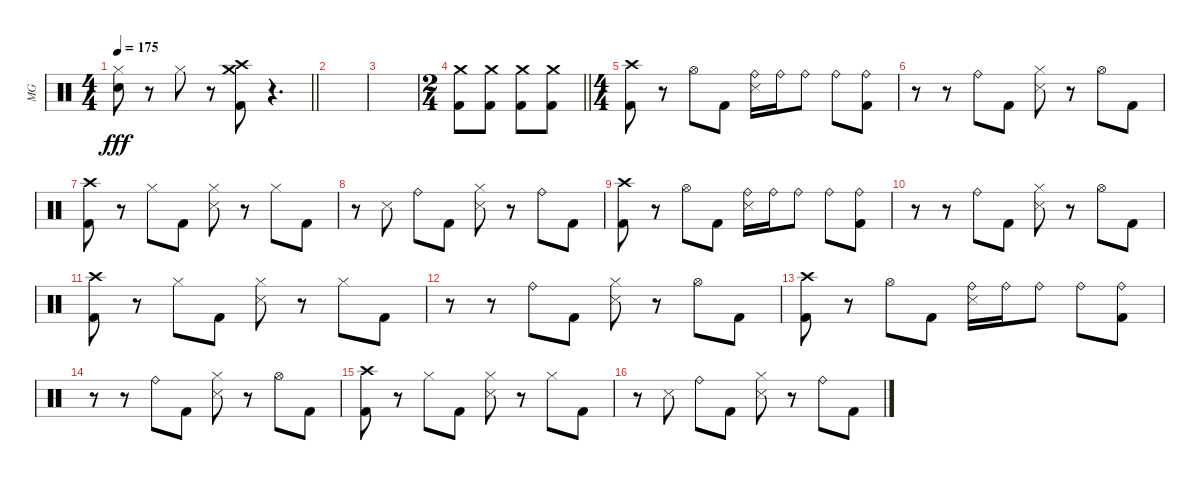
\track ("MG" "MG") {instrument percussion}
\staff {score}
\articulation defaults
\ts (4 4)
\tempo 175
\clef neutral
\barLineRight lightlight
\ks c
("Hi-Hat (closed)" "Electric Snare (hit)").8{dy fff} r.8 "Hi-Hat (closed)".8 r.8 ("Crash medium (hit)" "Crash high (hit)" "Kick (hit) 2").8 r.4{d} |
\section ("" "")
|
|
\ts (2 4)
\barLineRight lightlight
("Crash medium (hit)" "Kick (hit) 2").8 ("Crash medium (hit)" "Kick (hit) 2").8 ("Crash medium (hit)" "Kick (hit) 2").8 ("Crash medium (hit)" "Kick (hit) 2").8 |
\ts (4 4)
\section ("" "")
("Crash high (hit)" "Kick (hit) 2").8 r.8 "Hi-Hat (open)".8 "Kick (hit) 2".8 ("Ride (bell)" "Snare (side stick) 3").16 "Ride (bell)".16 "Ride (bell)".8 "Ride (bell)".8 ("Ride (bell)" "Kick (hit) 2").8 |
r.8 r.8 "Ride (bell)".8 "Kick (hit) 2".8 ("Hi-Hat (closed)" "Snare (side stick) 3").8 r.8 "Hi-Hat (open)".8 "Kick (hit) 2".8 |
("Crash high (hit)" "Kick (hit) 2").8 r.8 "Hi-Hat (closed)".8 "Kick (hit) 2".8 ("Hi-Hat (closed)" "Snare (side stick) 3").8 r.8 "Hi-Hat (closed)".8 "Kick (hit) 2".8 |
r.8 "Snare (side stick) 3".8 "Ride (bell)".8 "Kick (hit) 2".8 ("Hi-Hat (closed)" "Snare (side stick) 3").8 r.8 "Ride (bell)".8 "Kick (hit) 2".8 |
("Crash high (hit)" "Kick (hit) 2").8 r.8 "Hi-Hat (open)".8 "Kick (hit) 2".8 ("Ride (bell)" "Snare (side stick) 3").16 "Ride (bell)".16 "Ride (bell)".8 "Ride (bell)".8 ("Ride (bell)" "Kick (hit) 2").8 |
r.8 r.8 "Ride (bell)".8 "Kick (hit) 2".8 ("Hi-Hat (closed)" "Snare (side stick) 3").8 r.8 "Hi-Hat (open)".8 "Kick (hit) 2".8 |
("Crash high (hit)" "Kick (hit) 2").8 r.8 "Hi-Hat (closed)".8 "Kick (hit) 2".8 ("Hi-Hat (closed)" "Snare (side stick) 3").8 r.8 "Hi-Hat (closed)".8 "Kick (hit) 2".8 |
r.8 r.8 "Ride (bell)".8 "Kick (hit) 2".8 ("Hi-Hat (closed)" "Snare (side stick) 3").8 r.8 "Hi-Hat (open)".8 "Kick (hit) 2".8 |
("Crash high (hit)" "Kick (hit) 2").8 r.8 "Hi-Hat (open)".8 "Kick (hit) 2".8 ("Ride (bell)" "Snare (side stick) 3").16 "Ride (bell)".16 "Ride (bell)".8 "Ride (bell)".8 ("Ride (bell)" "Kick (hit) 2").8 |
r.8 r.8 "Ride (bell)".8 "Kick (hit) 2".8 ("Hi-Hat (closed)" "Snare (side stick) 3").8 r.8 "Hi-Hat (open)".8 "Kick (hit) 2".8 |
("Crash high (hit)" "Kick (hit) 2").8 r.8 "Hi-Hat (closed)".8 "Kick (hit) 2".8 ("Hi-Hat (closed)" "Snare (side stick) 3").8 r.8 "Hi-Hat (closed)".8 "Kick (hit) 2".8 |
r.8 "Snare (side stick) 3".8 "Ride (bell)".8 "Kick (hit) 2".8 ("Hi-Hat (closed)" "Snare (side stick) 3").8 r.8 "Ride (bell)".8 "Kick (hit) 2".8
